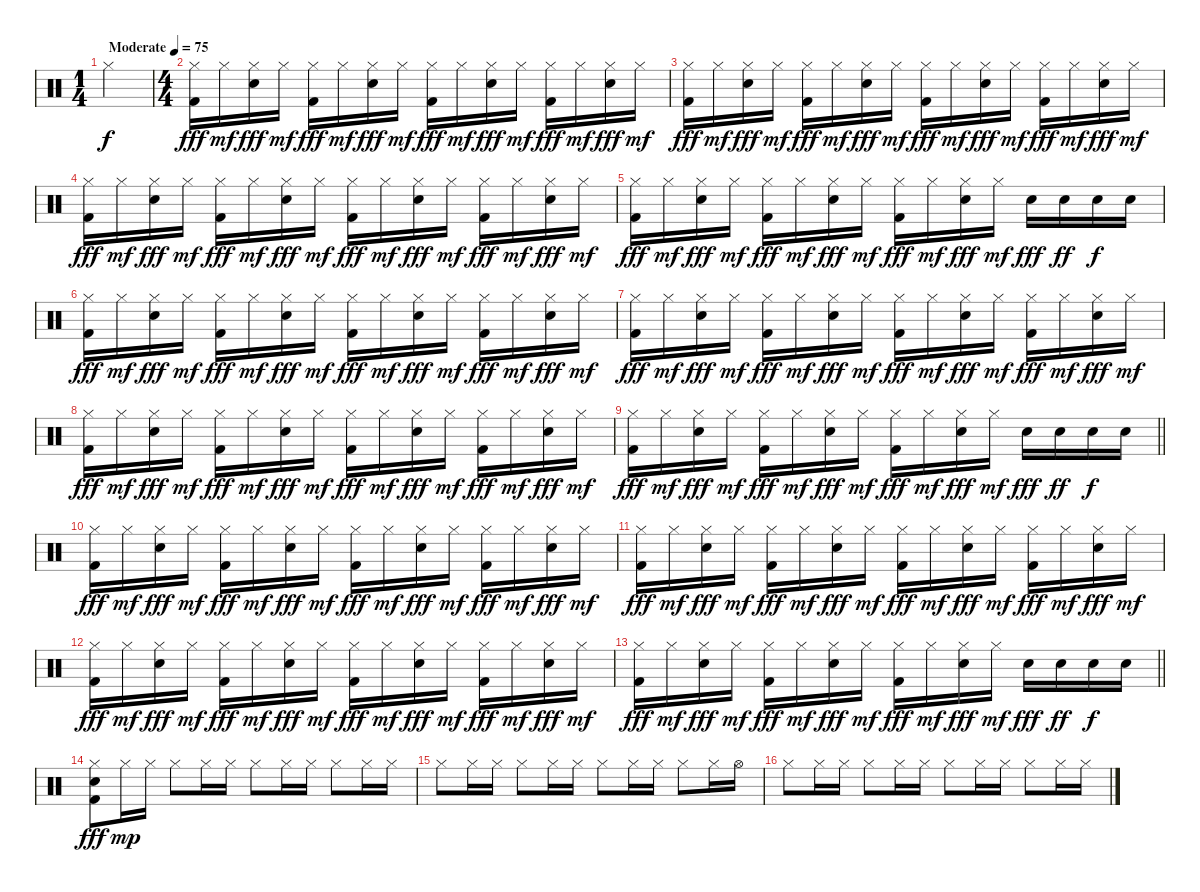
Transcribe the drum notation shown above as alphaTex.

\track "" {instrument percussion}
\staff {score}
\articulation defaults
\ts (1 4)
\tempo (75 "Moderate")
\clef neutral
\ks c "Hi-Hat (closed)".4{dy f}
|
\ts (4 4)
("Hi-Hat (closed)" "Kick (hit) 2").16{dy fff} "Hi-Hat (closed)".16{dy mf} ("Hi-Hat (closed)" "Snare (hit) 2").16{dy fff} "Hi-Hat (closed)".16{dy mf} ("Hi-Hat (closed)" "Kick (hit) 2").16{dy fff} "Hi-Hat (closed)".16{dy mf} ("Hi-Hat (closed)" "Snare (hit) 2").16{dy fff} "Hi-Hat (closed)".16{dy mf} ("Hi-Hat (closed)" "Kick (hit) 2").16{dy fff} "Hi-Hat (closed)".16{dy mf} ("Hi-Hat (closed)" "Snare (hit) 2").16{dy fff} "Hi-Hat (closed)".16{dy mf} ("Hi-Hat (closed)" "Kick (hit) 2").16{dy fff} "Hi-Hat (closed)".16{dy mf} ("Hi-Hat (closed)" "Snare (hit) 2").16{dy fff} "Hi-Hat (closed)".16{dy mf} |
("Hi-Hat (closed)" "Kick (hit) 2").16{dy fff} "Hi-Hat (closed)".16{dy mf} ("Hi-Hat (closed)" "Snare (hit) 2").16{dy fff} "Hi-Hat (closed)".16{dy mf} ("Hi-Hat (closed)" "Kick (hit) 2").16{dy fff} "Hi-Hat (closed)".16{dy mf} ("Hi-Hat (closed)" "Snare (hit) 2").16{dy fff} "Hi-Hat (closed)".16{dy mf} ("Hi-Hat (closed)" "Kick (hit) 2").16{dy fff} "Hi-Hat (closed)".16{dy mf} ("Hi-Hat (closed)" "Snare (hit) 2").16{dy fff} "Hi-Hat (closed)".16{dy mf} ("Hi-Hat (closed)" "Kick (hit) 2").16{dy fff} "Hi-Hat (closed)".16{dy mf} ("Hi-Hat (closed)" "Snare (hit) 2").16{dy fff} "Hi-Hat (closed)".16{dy mf} |
("Hi-Hat (closed)" "Kick (hit) 2").16{dy fff} "Hi-Hat (closed)".16{dy mf} ("Hi-Hat (closed)" "Snare (hit) 2").16{dy fff} "Hi-Hat (closed)".16{dy mf} ("Hi-Hat (closed)" "Kick (hit) 2").16{dy fff} "Hi-Hat (closed)".16{dy mf} ("Hi-Hat (closed)" "Snare (hit) 2").16{dy fff} "Hi-Hat (closed)".16{dy mf} ("Hi-Hat (closed)" "Kick (hit) 2").16{dy fff} "Hi-Hat (closed)".16{dy mf} ("Hi-Hat (closed)" "Snare (hit) 2").16{dy fff} "Hi-Hat (closed)".16{dy mf} ("Hi-Hat (closed)" "Kick (hit) 2").16{dy fff} "Hi-Hat (closed)".16{dy mf} ("Hi-Hat (closed)" "Snare (hit) 2").16{dy fff} "Hi-Hat (closed)".16{dy mf} |
("Hi-Hat (closed)" "Kick (hit) 2").16{dy fff} "Hi-Hat (closed)".16{dy mf} ("Hi-Hat (closed)" "Snare (hit) 2").16{dy fff} "Hi-Hat (closed)".16{dy mf} ("Hi-Hat (closed)" "Kick (hit) 2").16{dy fff} "Hi-Hat (closed)".16{dy mf} ("Hi-Hat (closed)" "Snare (hit) 2").16{dy fff} "Hi-Hat (closed)".16{dy mf} ("Hi-Hat (closed)" "Kick (hit) 2").16{dy fff} "Hi-Hat (closed)".16{dy mf} ("Hi-Hat (closed)" "Snare (hit) 2").16{dy fff} "Hi-Hat (closed)".16{dy mf} "Snare (hit) 2".16{dy fff} "Snare (hit) 2".16{dy ff} "Snare (hit) 2".16{dy f} "Snare (hit) 2".16 |
("Hi-Hat (closed)" "Kick (hit) 2").16{dy fff} "Hi-Hat (closed)".16{dy mf} ("Hi-Hat (closed)" "Snare (hit) 2").16{dy fff} "Hi-Hat (closed)".16{dy mf} ("Hi-Hat (closed)" "Kick (hit) 2").16{dy fff} "Hi-Hat (closed)".16{dy mf} ("Hi-Hat (closed)" "Snare (hit) 2").16{dy fff} "Hi-Hat (closed)".16{dy mf} ("Hi-Hat (closed)" "Kick (hit) 2").16{dy fff} "Hi-Hat (closed)".16{dy mf} ("Hi-Hat (closed)" "Snare (hit) 2").16{dy fff} "Hi-Hat (closed)".16{dy mf} ("Hi-Hat (closed)" "Kick (hit) 2").16{dy fff} "Hi-Hat (closed)".16{dy mf} ("Hi-Hat (closed)" "Snare (hit) 2").16{dy fff} "Hi-Hat (closed)".16{dy mf} |
("Hi-Hat (closed)" "Kick (hit) 2").16{dy fff} "Hi-Hat (closed)".16{dy mf} ("Hi-Hat (closed)" "Snare (hit) 2").16{dy fff} "Hi-Hat (closed)".16{dy mf} ("Hi-Hat (closed)" "Kick (hit) 2").16{dy fff} "Hi-Hat (closed)".16{dy mf} ("Hi-Hat (closed)" "Snare (hit) 2").16{dy fff} "Hi-Hat (closed)".16{dy mf} ("Hi-Hat (closed)" "Kick (hit) 2").16{dy fff} "Hi-Hat (closed)".16{dy mf} ("Hi-Hat (closed)" "Snare (hit) 2").16{dy fff} "Hi-Hat (closed)".16{dy mf} ("Hi-Hat (closed)" "Kick (hit) 2").16{txt "" dy fff} "Hi-Hat (closed)".16{dy mf} ("Hi-Hat (closed)" "Snare (hit) 2").16{dy fff} "Hi-Hat (closed)".16{dy mf} |
("Hi-Hat (closed)" "Kick (hit) 2").16{dy fff} "Hi-Hat (closed)".16{dy mf} ("Hi-Hat (closed)" "Snare (hit) 2").16{dy fff} "Hi-Hat (closed)".16{dy mf} ("Hi-Hat (closed)" "Kick (hit) 2").16{dy fff} "Hi-Hat (closed)".16{dy mf} ("Hi-Hat (closed)" "Snare (hit) 2").16{dy fff} "Hi-Hat (closed)".16{dy mf} ("Hi-Hat (closed)" "Kick (hit) 2").16{dy fff} "Hi-Hat (closed)".16{dy mf} ("Hi-Hat (closed)" "Snare (hit) 2").16{dy fff} "Hi-Hat (closed)".16{dy mf} ("Hi-Hat (closed)" "Kick (hit) 2").16{dy fff} "Hi-Hat (closed)".16{dy mf} ("Hi-Hat (closed)" "Snare (hit) 2").16{dy fff} "Hi-Hat (closed)".16{dy mf} |
\barLineRight lightlight
("Hi-Hat (closed)" "Kick (hit) 2").16{dy fff} "Hi-Hat (closed)".16{dy mf} ("Hi-Hat (closed)" "Snare (hit) 2").16{dy fff} "Hi-Hat (closed)".16{dy mf} ("Hi-Hat (closed)" "Kick (hit) 2").16{dy fff} "Hi-Hat (closed)".16{dy mf} ("Hi-Hat (closed)" "Snare (hit) 2").16{dy fff} "Hi-Hat (closed)".16{dy mf} ("Hi-Hat (closed)" "Kick (hit) 2").16{dy fff} "Hi-Hat (closed)".16{dy mf} ("Hi-Hat (closed)" "Snare (hit) 2").16{dy fff} "Hi-Hat (closed)".16{dy mf} "Snare (hit) 2".16{dy fff} "Snare (hit) 2".16{dy ff} "Snare (hit) 2".16{dy f} "Snare (hit) 2".16 |
("Hi-Hat (closed)" "Kick (hit) 2").16{dy fff} "Hi-Hat (closed)".16{dy mf} ("Hi-Hat (closed)" "Snare (hit) 2").16{dy fff} "Hi-Hat (closed)".16{dy mf} ("Hi-Hat (closed)" "Kick (hit) 2").16{dy fff} "Hi-Hat (closed)".16{dy mf} ("Hi-Hat (closed)" "Snare (hit) 2").16{dy fff} "Hi-Hat (closed)".16{dy mf} ("Hi-Hat (closed)" "Kick (hit) 2").16{dy fff} "Hi-Hat (closed)".16{dy mf} ("Hi-Hat (closed)" "Snare (hit) 2").16{dy fff} "Hi-Hat (closed)".16{dy mf} ("Hi-Hat (closed)" "Kick (hit) 2").16{dy fff} "Hi-Hat (closed)".16{dy mf} ("Hi-Hat (closed)" "Snare (hit) 2").16{dy fff} "Hi-Hat (closed)".16{dy mf} |
("Hi-Hat (closed)" "Kick (hit) 2").16{dy fff} "Hi-Hat (closed)".16{dy mf} ("Hi-Hat (closed)" "Snare (hit) 2").16{dy fff} "Hi-Hat (closed)".16{dy mf} ("Hi-Hat (closed)" "Kick (hit) 2").16{dy fff} "Hi-Hat (closed)".16{dy mf} ("Hi-Hat (closed)" "Snare (hit) 2").16{dy fff} "Hi-Hat (closed)".16{dy mf} ("Hi-Hat (closed)" "Kick (hit) 2").16{dy fff} "Hi-Hat (closed)".16{dy mf} ("Hi-Hat (closed)" "Snare (hit) 2").16{dy fff} "Hi-Hat (closed)".16{dy mf} ("Hi-Hat (closed)" "Kick (hit) 2").16{dy fff} "Hi-Hat (closed)".16{dy mf} ("Hi-Hat (closed)" "Snare (hit) 2").16{dy fff} "Hi-Hat (closed)".16{dy mf} |
("Hi-Hat (closed)" "Kick (hit) 2").16{dy fff} "Hi-Hat (closed)".16{dy mf} ("Hi-Hat (closed)" "Snare (hit) 2").16{dy fff} "Hi-Hat (closed)".16{dy mf} ("Hi-Hat (closed)" "Kick (hit) 2").16{dy fff} "Hi-Hat (closed)".16{dy mf} ("Hi-Hat (closed)" "Snare (hit) 2").16{dy fff} "Hi-Hat (closed)".16{dy mf} ("Hi-Hat (closed)" "Kick (hit) 2").16{dy fff} "Hi-Hat (closed)".16{dy mf} ("Hi-Hat (closed)" "Snare (hit) 2").16{dy fff} "Hi-Hat (closed)".16{dy mf} ("Hi-Hat (closed)" "Kick (hit) 2").16{dy fff} "Hi-Hat (closed)".16{dy mf} ("Hi-Hat (closed)" "Snare (hit) 2").16{dy fff} "Hi-Hat (closed)".16{dy mf} |
\barLineRight lightlight
("Hi-Hat (closed)" "Kick (hit) 2").16{dy fff} "Hi-Hat (closed)".16{dy mf} ("Hi-Hat (closed)" "Snare (hit) 2").16{dy fff} "Hi-Hat (closed)".16{dy mf} ("Hi-Hat (closed)" "Kick (hit) 2").16{dy fff} "Hi-Hat (closed)".16{dy mf} ("Hi-Hat (closed)" "Snare (hit) 2").16{dy fff} "Hi-Hat (closed)".16{dy mf} ("Hi-Hat (closed)" "Kick (hit) 2").16{dy fff} "Hi-Hat (closed)".16{dy mf} ("Hi-Hat (closed)" "Snare (hit) 2").16{dy fff} "Hi-Hat (closed)".16{dy mf} "Snare (hit) 2".16{dy fff} "Snare (hit) 2".16{dy ff} "Snare (hit) 2".16{dy f} "Snare (hit) 2".16 |
\section ("" "")
("Hi-Hat (closed)" "Snare (hit) 2" "Kick (hit) 2").8{dy fff} "Hi-Hat (closed)".16{dy mp} "Hi-Hat (closed)".16 "Hi-Hat (closed)".8 "Hi-Hat (closed)".16 "Hi-Hat (closed)".16 "Hi-Hat (closed)".8 "Hi-Hat (closed)".16 "Hi-Hat (closed)".16 "Hi-Hat (closed)".8 "Hi-Hat (closed)".16 "Hi-Hat (closed)".16 |
"Hi-Hat (closed)".8 "Hi-Hat (closed)".16 "Hi-Hat (closed)".16 "Hi-Hat (closed)".8 "Hi-Hat (closed)".16 "Hi-Hat (closed)".16 "Hi-Hat (closed)".8 "Hi-Hat (closed)".16 "Hi-Hat (closed)".16 "Hi-Hat (closed)".8 "Hi-Hat (closed)".16 "Hi-Hat (open)".16 |
"Hi-Hat (closed)".8 "Hi-Hat (closed)".16 "Hi-Hat (closed)".16 "Hi-Hat (closed)".8 "Hi-Hat (closed)".16 "Hi-Hat (closed)".16 "Hi-Hat (closed)".8 "Hi-Hat (closed)".16 "Hi-Hat (closed)".16 "Hi-Hat (closed)".8 "Hi-Hat (closed)".16 "Hi-Hat (closed)".16
